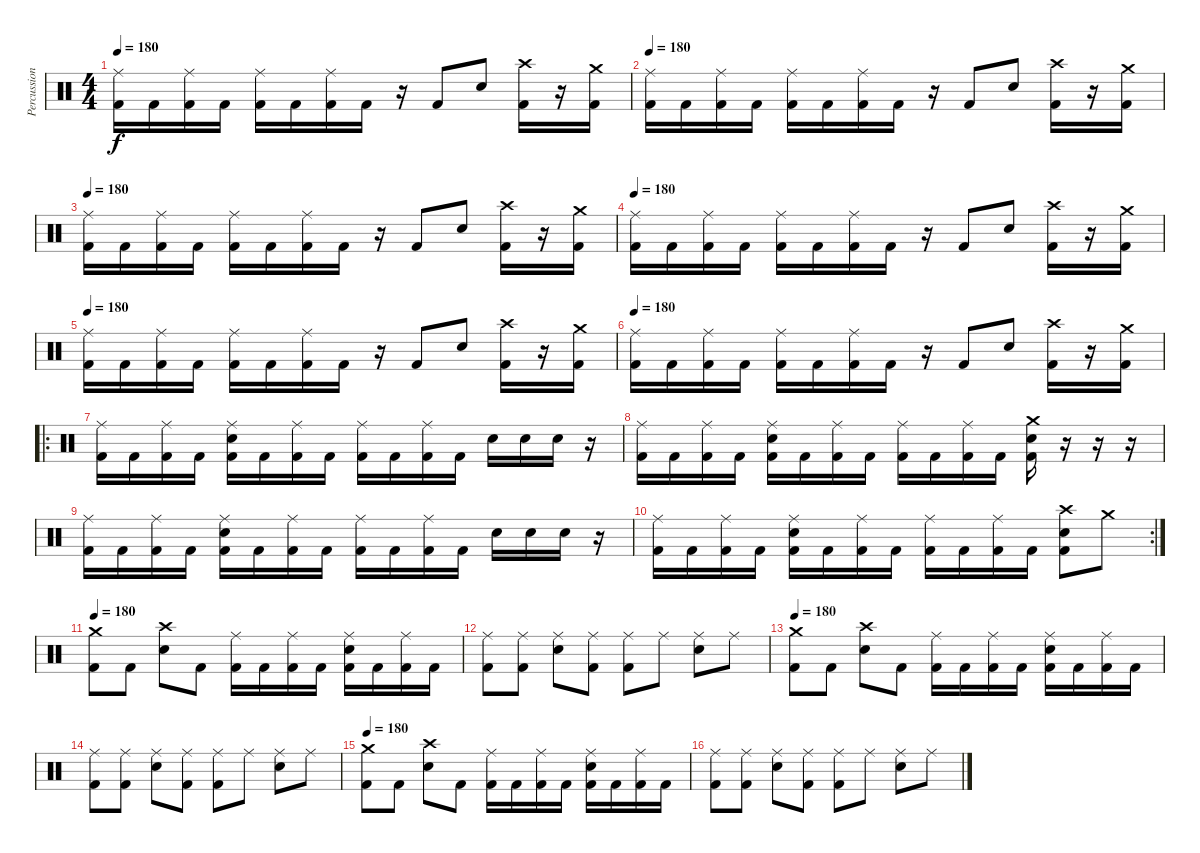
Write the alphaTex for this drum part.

\track ("Percussions" "Percussion") {instrument percussion}
\staff {score}
\articulation defaults
\ts (4 4)
\tempo 180
\clef neutral
\ks c
("Kick (hit) 2" "Ride (middle)").16{dy f} "Kick (hit) 2".16 ("Kick (hit) 2" "Ride (middle)").16 "Kick (hit) 2".16 ("Kick (hit) 2" "Ride (middle)").16 "Kick (hit) 2".16 ("Kick (hit) 2" "Ride (middle)").16 "Kick (hit) 2".16 r.16 "Kick (hit) 2".8 "Electric Snare (hit)".8 ("Kick (hit) 2" "Crash high (hit)").16 r.16 ("Kick (hit) 2" "Crash medium (hit)").16 |
\tempo 180
("Kick (hit) 2" "Ride (middle)").16 "Kick (hit) 2".16 ("Kick (hit) 2" "Ride (middle)").16 "Kick (hit) 2".16 ("Kick (hit) 2" "Ride (middle)").16 "Kick (hit) 2".16 ("Kick (hit) 2" "Ride (middle)").16 "Kick (hit) 2".16 r.16 "Kick (hit) 2".8 "Electric Snare (hit)".8 ("Kick (hit) 2" "Crash high (hit)").16 r.16 ("Kick (hit) 2" "Crash medium (hit)").16 |
\tempo 180
("Kick (hit) 2" "Ride (middle)").16 "Kick (hit) 2".16 ("Kick (hit) 2" "Ride (middle)").16 "Kick (hit) 2".16 ("Kick (hit) 2" "Ride (middle)").16 "Kick (hit) 2".16 ("Kick (hit) 2" "Ride (middle)").16 "Kick (hit) 2".16 r.16 "Kick (hit) 2".8 "Electric Snare (hit)".8 ("Kick (hit) 2" "Crash high (hit)").16 r.16 ("Kick (hit) 2" "Crash medium (hit)").16 |
\tempo 180
("Kick (hit) 2" "Ride (middle)").16 "Kick (hit) 2".16 ("Kick (hit) 2" "Ride (middle)").16 "Kick (hit) 2".16 ("Kick (hit) 2" "Ride (middle)").16 "Kick (hit) 2".16 ("Kick (hit) 2" "Ride (middle)").16 "Kick (hit) 2".16 r.16 "Kick (hit) 2".8 "Electric Snare (hit)".8 ("Kick (hit) 2" "Crash high (hit)").16 r.16 ("Kick (hit) 2" "Crash medium (hit)").16 |
\tempo 180
("Kick (hit) 2" "Ride (middle)").16 "Kick (hit) 2".16 ("Kick (hit) 2" "Ride (middle)").16 "Kick (hit) 2".16 ("Kick (hit) 2" "Ride (middle)").16 "Kick (hit) 2".16 ("Kick (hit) 2" "Ride (middle)").16 "Kick (hit) 2".16 r.16 "Kick (hit) 2".8 "Electric Snare (hit)".8 ("Kick (hit) 2" "Crash high (hit)").16 r.16 ("Kick (hit) 2" "Crash medium (hit)").16 |
\tempo 180
("Kick (hit) 2" "Ride (middle)").16 "Kick (hit) 2".16 ("Kick (hit) 2" "Ride (middle)").16 "Kick (hit) 2".16 ("Kick (hit) 2" "Ride (middle)").16 "Kick (hit) 2".16 ("Kick (hit) 2" "Ride (middle)").16 "Kick (hit) 2".16 r.16 "Kick (hit) 2".8 "Electric Snare (hit)".8 ("Kick (hit) 2" "Crash high (hit)").16 r.16 ("Kick (hit) 2" "Crash medium (hit)").16 |
\ro
("Kick (hit) 2" "Ride (middle)").16 "Kick (hit) 2".16 ("Kick (hit) 2" "Ride (middle)").16 "Kick (hit) 2".16 ("Kick (hit) 2" "Electric Snare (hit)" "Ride (middle)").16 "Kick (hit) 2".16 ("Kick (hit) 2" "Ride (middle)").16 "Kick (hit) 2".16 ("Kick (hit) 2" "Ride (middle)").16 "Kick (hit) 2".16 ("Kick (hit) 2" "Ride (middle)").16 "Kick (hit) 2".16 "Electric Snare (hit)".16 "Electric Snare (hit)".16 "Electric Snare (hit)".16 r.16 |
("Kick (hit) 2" "Ride (middle)").16 "Kick (hit) 2".16 ("Kick (hit) 2" "Ride (middle)").16 "Kick (hit) 2".16 ("Kick (hit) 2" "Electric Snare (hit)" "Ride (middle)").16 "Kick (hit) 2".16 ("Kick (hit) 2" "Ride (middle)").16 "Kick (hit) 2".16 ("Kick (hit) 2" "Ride (middle)").16 "Kick (hit) 2".16 ("Kick (hit) 2" "Ride (middle)").16 "Kick (hit) 2".16 ("Kick (hit) 2" "Electric Snare (hit)" "Crash medium (hit)").16 r.16 r.16 r.16 |
("Kick (hit) 2" "Ride (middle)").16 "Kick (hit) 2".16 ("Kick (hit) 2" "Ride (middle)").16 "Kick (hit) 2".16 ("Kick (hit) 2" "Electric Snare (hit)" "Ride (middle)").16 "Kick (hit) 2".16 ("Kick (hit) 2" "Ride (middle)").16 "Kick (hit) 2".16 ("Kick (hit) 2" "Ride (middle)").16 "Kick (hit) 2".16 ("Kick (hit) 2" "Ride (middle)").16 "Kick (hit) 2".16 "Electric Snare (hit)".16 "Electric Snare (hit)".16 "Electric Snare (hit)".16 r.16 |
\rc 2
("Kick (hit) 2" "Ride (middle)").16 "Kick (hit) 2".16 ("Kick (hit) 2" "Ride (middle)").16 "Kick (hit) 2".16 ("Kick (hit) 2" "Electric Snare (hit)" "Ride (middle)").16 "Kick (hit) 2".16 ("Kick (hit) 2" "Ride (middle)").16 "Kick (hit) 2".16 ("Kick (hit) 2" "Ride (middle)").16 "Kick (hit) 2".16 ("Kick (hit) 2" "Ride (middle)").16 "Kick (hit) 2".16 ("Kick (hit) 2" "Electric Snare (hit)" "Crash high (hit)").8 "Crash medium (hit)".8 |
\tempo 180
("Crash medium (hit)" "Kick (hit) 2").8 "Kick (hit) 2".8 ("Crash high (hit)" "Electric Snare (hit)").8 "Kick (hit) 2".8 ("Kick (hit) 2" "Ride (middle)").16 "Kick (hit) 2".16 ("Kick (hit) 2" "Ride (middle)").16 "Kick (hit) 2".16 ("Kick (hit) 2" "Electric Snare (hit)" "Ride (middle)").16 "Kick (hit) 2".16 ("Kick (hit) 2" "Ride (middle)").16 "Kick (hit) 2".16 |
("Ride (middle)" "Kick (hit) 2").8 ("Ride (middle)" "Kick (hit) 2").8 ("Ride (middle)" "Electric Snare (hit)").8 ("Ride (middle)" "Kick (hit) 2").8 ("Ride (middle)" "Kick (hit) 2").8 "Ride (middle)".8 ("Ride (middle)" "Electric Snare (hit)").8 "Ride (middle)".8 |
\tempo 180
("Crash medium (hit)" "Kick (hit) 2").8 "Kick (hit) 2".8 ("Crash high (hit)" "Electric Snare (hit)").8 "Kick (hit) 2".8 ("Kick (hit) 2" "Ride (middle)").16 "Kick (hit) 2".16 ("Kick (hit) 2" "Ride (middle)").16 "Kick (hit) 2".16 ("Kick (hit) 2" "Electric Snare (hit)" "Ride (middle)").16 "Kick (hit) 2".16 ("Kick (hit) 2" "Ride (middle)").16 "Kick (hit) 2".16 |
("Ride (middle)" "Kick (hit) 2").8 ("Ride (middle)" "Kick (hit) 2").8 ("Ride (middle)" "Electric Snare (hit)").8 ("Ride (middle)" "Kick (hit) 2").8 ("Ride (middle)" "Kick (hit) 2").8 "Ride (middle)".8 ("Ride (middle)" "Electric Snare (hit)").8 "Ride (middle)".8 |
\tempo 180
("Crash medium (hit)" "Kick (hit) 2").8 "Kick (hit) 2".8 ("Crash high (hit)" "Electric Snare (hit)").8 "Kick (hit) 2".8 ("Kick (hit) 2" "Ride (middle)").16 "Kick (hit) 2".16 ("Kick (hit) 2" "Ride (middle)").16 "Kick (hit) 2".16 ("Kick (hit) 2" "Electric Snare (hit)" "Ride (middle)").16 "Kick (hit) 2".16 ("Kick (hit) 2" "Ride (middle)").16 "Kick (hit) 2".16 |
("Ride (middle)" "Kick (hit) 2").8 ("Ride (middle)" "Kick (hit) 2").8 ("Ride (middle)" "Electric Snare (hit)").8 ("Ride (middle)" "Kick (hit) 2").8 ("Ride (middle)" "Kick (hit) 2").8 "Ride (middle)".8 ("Ride (middle)" "Electric Snare (hit)").8 "Ride (middle)".8
